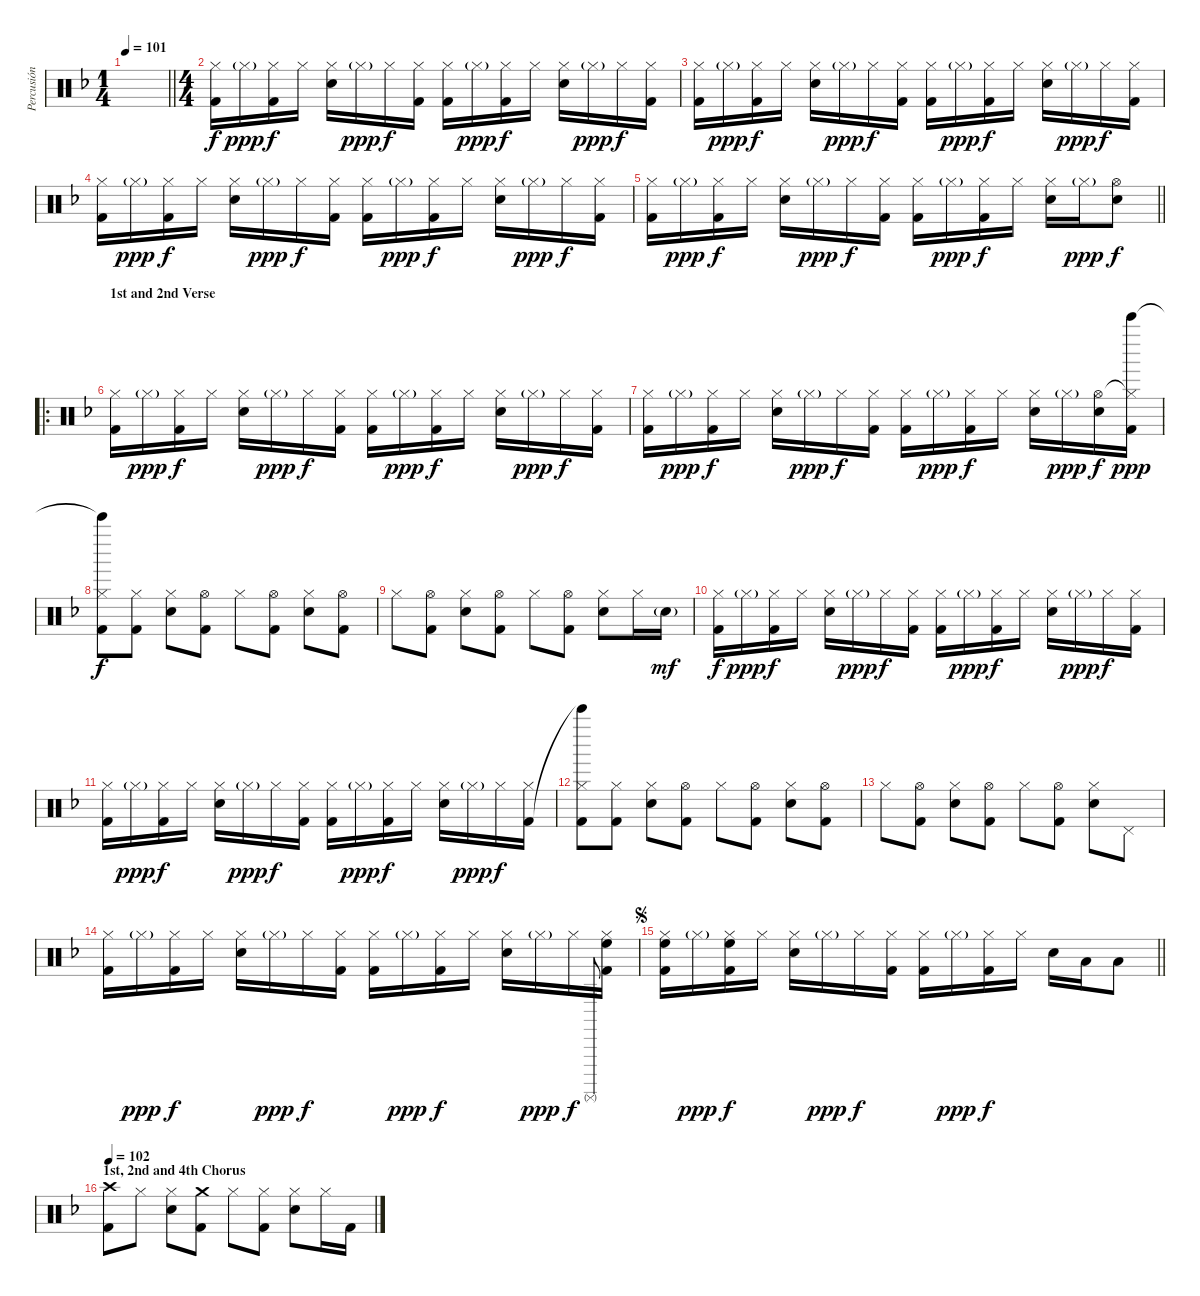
\track ("Percusión" "Percusión") {instrument percussion}
\staff {score}
\articulation defaults
\ts (1 4)
\tempo 101
\clef neutral
\barLineRight lightlight
\ks f
|
\ts (4 4)
("Hi-Hat (closed)" "Kick (hit) 2").16 "Hi-Hat (closed)"{g}.16{dy ppp} ("Hi-Hat (closed)" "Kick (hit) 2").16{dy f} "Hi-Hat (closed)".16 ("Hi-Hat (closed)" "Snare (hit) 2").16 "Hi-Hat (closed)"{g}.16{dy ppp} "Hi-Hat (closed)".16{dy f} ("Hi-Hat (closed)" "Kick (hit) 2").16 ("Hi-Hat (closed)" "Kick (hit) 2").16 "Hi-Hat (closed)"{g}.16{dy ppp} ("Hi-Hat (closed)" "Kick (hit) 2").16{dy f} "Hi-Hat (closed)".16 ("Hi-Hat (closed)" "Snare (hit) 2").16 "Hi-Hat (closed)"{g}.16{dy ppp} "Hi-Hat (closed)".16{dy f} ("Hi-Hat (closed)" "Kick (hit) 2").16 |
("Hi-Hat (closed)" "Kick (hit) 2").16 "Hi-Hat (closed)"{g}.16{dy ppp} ("Hi-Hat (closed)" "Kick (hit) 2").16{dy f} "Hi-Hat (closed)".16 ("Hi-Hat (closed)" "Snare (hit) 2").16 "Hi-Hat (closed)"{g}.16{dy ppp} "Hi-Hat (closed)".16{dy f} ("Hi-Hat (closed)" "Kick (hit) 2").16 ("Hi-Hat (closed)" "Kick (hit) 2").16 "Hi-Hat (closed)"{g}.16{dy ppp} ("Hi-Hat (closed)" "Kick (hit) 2").16{dy f} "Hi-Hat (closed)".16 ("Hi-Hat (closed)" "Snare (hit) 2").16 "Hi-Hat (closed)"{g}.16{dy ppp} "Hi-Hat (closed)".16{dy f} ("Hi-Hat (closed)" "Kick (hit) 2").16 |
("Hi-Hat (closed)" "Kick (hit) 2").16 "Hi-Hat (closed)"{g}.16{dy ppp} ("Hi-Hat (closed)" "Kick (hit) 2").16{dy f} "Hi-Hat (closed)".16 ("Hi-Hat (closed)" "Snare (hit) 2").16 "Hi-Hat (closed)"{g}.16{dy ppp} "Hi-Hat (closed)".16{dy f} ("Hi-Hat (closed)" "Kick (hit) 2").16 ("Hi-Hat (closed)" "Kick (hit) 2").16 "Hi-Hat (closed)"{g}.16{dy ppp} ("Hi-Hat (closed)" "Kick (hit) 2").16{dy f} "Hi-Hat (closed)".16 ("Hi-Hat (closed)" "Snare (hit) 2").16 "Hi-Hat (closed)"{g}.16{dy ppp} "Hi-Hat (closed)".16{dy f} ("Hi-Hat (closed)" "Kick (hit) 2").16 |
\barLineRight lightlight
("Hi-Hat (closed)" "Kick (hit) 2").16 "Hi-Hat (closed)"{g}.16{dy ppp} ("Hi-Hat (closed)" "Kick (hit) 2").16{dy f} "Hi-Hat (closed)".16 ("Hi-Hat (closed)" "Snare (hit) 2").16 "Hi-Hat (closed)"{g}.16{dy ppp} "Hi-Hat (closed)".16{dy f} ("Hi-Hat (closed)" "Kick (hit) 2").16 ("Hi-Hat (closed)" "Kick (hit) 2").16 "Hi-Hat (closed)"{g}.16{dy ppp} ("Hi-Hat (closed)" "Kick (hit) 2").16{dy f} "Hi-Hat (closed)".16 ("Hi-Hat (closed)" "Snare (hit) 2").16 "Hi-Hat (closed)"{g}.16{dy ppp} ("Hi-Hat (open)" "Snare (hit) 2").8{dy f} |
\ro
\section ("" "1st and 2nd Verse")
("Hi-Hat (closed)" "Kick (hit) 2").16 "Hi-Hat (closed)"{g}.16{dy ppp} ("Hi-Hat (closed)" "Kick (hit) 2").16{dy f} "Hi-Hat (closed)".16 ("Hi-Hat (closed)" "Snare (hit) 2").16 "Hi-Hat (closed)"{g}.16{dy ppp} "Hi-Hat (closed)".16{dy f} ("Hi-Hat (closed)" "Kick (hit) 2").16 ("Hi-Hat (closed)" "Kick (hit) 2").16 "Hi-Hat (closed)"{g}.16{dy ppp} ("Hi-Hat (closed)" "Kick (hit) 2").16{dy f} "Hi-Hat (closed)".16 ("Hi-Hat (closed)" "Snare (hit) 2").16 "Hi-Hat (closed)"{g}.16{dy ppp} "Hi-Hat (closed)".16{dy f} ("Hi-Hat (closed)" "Kick (hit) 2").16 |
("Hi-Hat (closed)" "Kick (hit) 2").16 "Hi-Hat (closed)"{g}.16{dy ppp} ("Hi-Hat (closed)" "Kick (hit) 2").16{dy f} "Hi-Hat (closed)".16 ("Hi-Hat (closed)" "Snare (hit) 2").16 "Hi-Hat (closed)"{g}.16{dy ppp} "Hi-Hat (closed)".16{dy f} ("Hi-Hat (closed)" "Kick (hit) 2").16 ("Hi-Hat (closed)" "Kick (hit) 2").16 "Hi-Hat (closed)"{g}.16{dy ppp} ("Hi-Hat (closed)" "Kick (hit) 2").16{dy f} "Hi-Hat (closed)".16 ("Hi-Hat (closed)" "Snare (hit) 2").16 "Hi-Hat (closed)"{g}.16{dy ppp} ("Hi-Hat (open)" "Snare (hit) 2").16{dy f} ("Hi-Hat (closed)"{t} "Bell Tree (hit)" "Kick (hit) 2").16{dy ppp} |
("Hi-Hat (closed)" "Bell Tree (hit)"{t} "Kick (hit) 2").8{dy f} ("Hi-Hat (closed)" "Kick (hit) 2").8 ("Hi-Hat (closed)" "Snare (hit) 2").8 ("Hi-Hat (open)" "Kick (hit) 2").8 "Hi-Hat (closed)".8 ("Hi-Hat (open)" "Kick (hit) 2").8 ("Hi-Hat (closed)" "Snare (hit) 2").8 ("Hi-Hat (open)" "Kick (hit) 2").8 |
"Hi-Hat (closed)".8 ("Hi-Hat (open)" "Kick (hit) 2").8 ("Hi-Hat (closed)" "Snare (hit) 2").8 ("Hi-Hat (open)" "Kick (hit) 2").8 "Hi-Hat (closed)".8 ("Hi-Hat (open)" "Kick (hit) 2").8 ("Hi-Hat (closed)" "Snare (hit) 2").8 "Hi-Hat (closed)".16 "Snare (hit) 2"{g}.16{dy mf} |
("Hi-Hat (closed)" "Kick (hit) 2").16{dy f} "Hi-Hat (closed)"{g}.16{dy ppp} ("Hi-Hat (closed)" "Kick (hit) 2").16{dy f} "Hi-Hat (closed)".16 ("Hi-Hat (closed)" "Snare (hit) 2").16 "Hi-Hat (closed)"{g}.16{dy ppp} "Hi-Hat (closed)".16{dy f} ("Hi-Hat (closed)" "Kick (hit) 2").16 ("Hi-Hat (closed)" "Kick (hit) 2").16 "Hi-Hat (closed)"{g}.16{dy ppp} ("Hi-Hat (closed)" "Kick (hit) 2").16{dy f} "Hi-Hat (closed)".16 ("Hi-Hat (closed)" "Snare (hit) 2").16 "Hi-Hat (closed)"{g}.16{dy ppp} "Hi-Hat (closed)".16{dy f} ("Hi-Hat (closed)" "Kick (hit) 2").16 |
("Hi-Hat (closed)" "Kick (hit) 2").16 "Hi-Hat (closed)"{g}.16{dy ppp} ("Hi-Hat (closed)" "Kick (hit) 2").16{dy f} "Hi-Hat (closed)".16 ("Hi-Hat (closed)" "Snare (hit) 2").16 "Hi-Hat (closed)"{g}.16{dy ppp} "Hi-Hat (closed)".16{dy f} ("Hi-Hat (closed)" "Kick (hit) 2").16 ("Hi-Hat (closed)" "Kick (hit) 2").16 "Hi-Hat (closed)"{g}.16{dy ppp} ("Hi-Hat (closed)" "Kick (hit) 2").16{dy f} "Hi-Hat (closed)".16 ("Hi-Hat (closed)" "Snare (hit) 2").16 "Hi-Hat (closed)"{g}.16{dy ppp} "Hi-Hat (closed)".16{dy f} ("Hi-Hat (closed)" "Kick (hit) 2").16 |
("Hi-Hat (closed)" "Bell Tree (hit)"{t} "Kick (hit) 2").8 ("Hi-Hat (closed)" "Kick (hit) 2").8 ("Hi-Hat (closed)" "Snare (hit) 2").8 ("Hi-Hat (open)" "Kick (hit) 2").8 "Hi-Hat (closed)".8 ("Hi-Hat (open)" "Kick (hit) 2").8 ("Hi-Hat (closed)" "Snare (hit) 2").8 ("Hi-Hat (open)" "Kick (hit) 2").8 |
"Hi-Hat (closed)".8 ("Hi-Hat (open)" "Kick (hit) 2").8 ("Hi-Hat (closed)" "Snare (hit) 2").8 ("Hi-Hat (open)" "Kick (hit) 2").8 "Hi-Hat (closed)".8 ("Hi-Hat (open)" "Kick (hit) 2").8 ("Hi-Hat (closed)" "Snare (hit) 2").8 "Pedal Hi-Hat (hit)".8 |
("Hi-Hat (closed)" "Kick (hit) 2").16 "Hi-Hat (closed)"{g}.16{dy ppp} ("Hi-Hat (closed)" "Kick (hit) 2").16{dy f} "Hi-Hat (closed)".16 ("Hi-Hat (closed)" "Snare (hit) 2").16 "Hi-Hat (closed)"{g}.16{dy ppp} "Hi-Hat (closed)".16{dy f} ("Hi-Hat (closed)" "Kick (hit) 2").16 ("Hi-Hat (closed)" "Kick (hit) 2").16 "Hi-Hat (closed)"{g}.16{dy ppp} ("Hi-Hat (closed)" "Kick (hit) 2").16{dy f} "Hi-Hat (closed)".16 ("Hi-Hat (closed)" "Snare (hit) 2").16 "Hi-Hat (closed)"{g}.16{dy ppp} "Hi-Hat (closed)".16{dy f} "Surdo (mute)".8{gr onbeat} ("Hi-Hat (closed)" "High Floor Tom (hit)" "Kick (hit) 2").16 |
\jump segno
\barLineRight lightlight
("Hi-Hat (closed)" "High Floor Tom (hit)" "Kick (hit) 2").16 "Hi-Hat (closed)"{g}.16{dy ppp} ("Hi-Hat (closed)" "High Floor Tom (hit)" "Kick (hit) 2").16{dy f} "Hi-Hat (closed)".16 ("Hi-Hat (closed)" "Snare (hit) 2").16 "Hi-Hat (closed)"{g}.16{dy ppp} "Hi-Hat (closed)".16{dy f} ("Hi-Hat (closed)" "Kick (hit) 2").16 ("Hi-Hat (closed)" "Kick (hit) 2").16 "Hi-Hat (closed)"{g}.16{dy ppp} ("Hi-Hat (closed)" "Kick (hit) 2").16{dy f} "Hi-Hat (closed)".16 "Snare (hit) 2".16 "Low Tom (hit)".16 "Low Tom (hit)".8 |
\section ("" "1st, 2nd and 4th Chorus")
\tempo 102
("Crash high (hit)" "Kick (hit) 2").8 "Hi-Hat (closed)".8 ("Hi-Hat (closed)" "Snare (hit) 2").8 ("Crash medium (hit)" "Kick (hit) 2").8 "Hi-Hat (closed)".8 ("Hi-Hat (closed)" "Kick (hit) 2").8 ("Hi-Hat (closed)" "Snare (hit) 2").8 "Hi-Hat (closed)".16 "Kick (hit) 2".16
